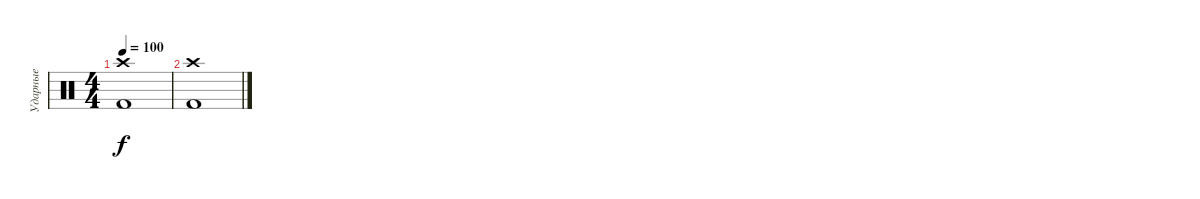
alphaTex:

\track ("Ударные" "Ударные") {instrument percussion}
\staff {score}
\articulation defaults
\ts (4 4)
\tempo 100
\clef neutral
\ks c
("Kick (hit) 2" "Crash high (hit)").1{dy f} |
("Kick (hit) 2" "Crash high (hit)").1
